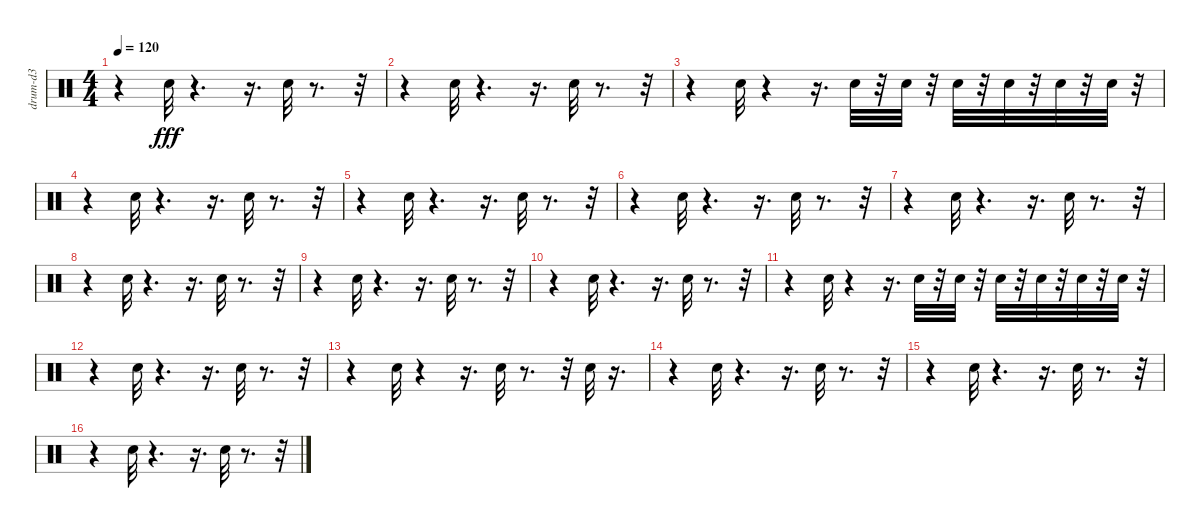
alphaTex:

\track ("drum-d3" "drum-d3") {instrument percussion}
\staff {score}
\articulation defaults
\ts (4 4)
\tempo 120
\clef neutral
\ks c
r.4{dy fff} "Snare (hit) 2".32 r.4{d} r.16{d} "Snare (hit) 2".32 r.8{d} r.32 |
r.4 "Snare (hit) 2".32 r.4{d} r.16{d} "Snare (hit) 2".32 r.8{d} r.32 |
r.4 "Snare (hit) 2".32 r.4 r.16{d} "Snare (hit) 2".32 r.32 "Snare (hit) 2".32 r.32 "Snare (hit) 2".32 r.32 "Snare (hit) 2".32 r.32 "Snare (hit) 2".32 r.32 "Snare (hit) 2".32 r.32 |
r.4 "Snare (hit) 2".32 r.4{d} r.16{d} "Snare (hit) 2".32 r.8{d} r.32 |
r.4 "Snare (hit) 2".32 r.4{d} r.16{d} "Snare (hit) 2".32 r.8{d} r.32 |
r.4 "Snare (hit) 2".32 r.4{d} r.16{d} "Snare (hit) 2".32 r.8{d} r.32 |
r.4 "Snare (hit) 2".32 r.4{d} r.16{d} "Snare (hit) 2".32 r.8{d} r.32 |
r.4 "Snare (hit) 2".32 r.4{d} r.16{d} "Snare (hit) 2".32 r.8{d} r.32 |
r.4 "Snare (hit) 2".32 r.4{d} r.16{d} "Snare (hit) 2".32 r.8{d} r.32 |
r.4 "Snare (hit) 2".32 r.4{d} r.16{d} "Snare (hit) 2".32 r.8{d} r.32 |
r.4 "Snare (hit) 2".32 r.4 r.16{d} "Snare (hit) 2".32 r.32 "Snare (hit) 2".32 r.32 "Snare (hit) 2".32 r.32 "Snare (hit) 2".32 r.32 "Snare (hit) 2".32 r.32 "Snare (hit) 2".32 r.32 |
r.4 "Snare (hit) 2".32 r.4{d} r.16{d} "Snare (hit) 2".32 r.8{d} r.32 |
r.4 "Snare (hit) 2".32 r.4 r.16{d} "Snare (hit) 2".32 r.8{d} r.32 "Snare (hit) 2".32 r.16{d} |
r.4 "Snare (hit) 2".32 r.4{d} r.16{d} "Snare (hit) 2".32 r.8{d} r.32 |
r.4 "Snare (hit) 2".32 r.4{d} r.16{d} "Snare (hit) 2".32 r.8{d} r.32 |
r.4 "Snare (hit) 2".32 r.4{d} r.16{d} "Snare (hit) 2".32 r.8{d} r.32
